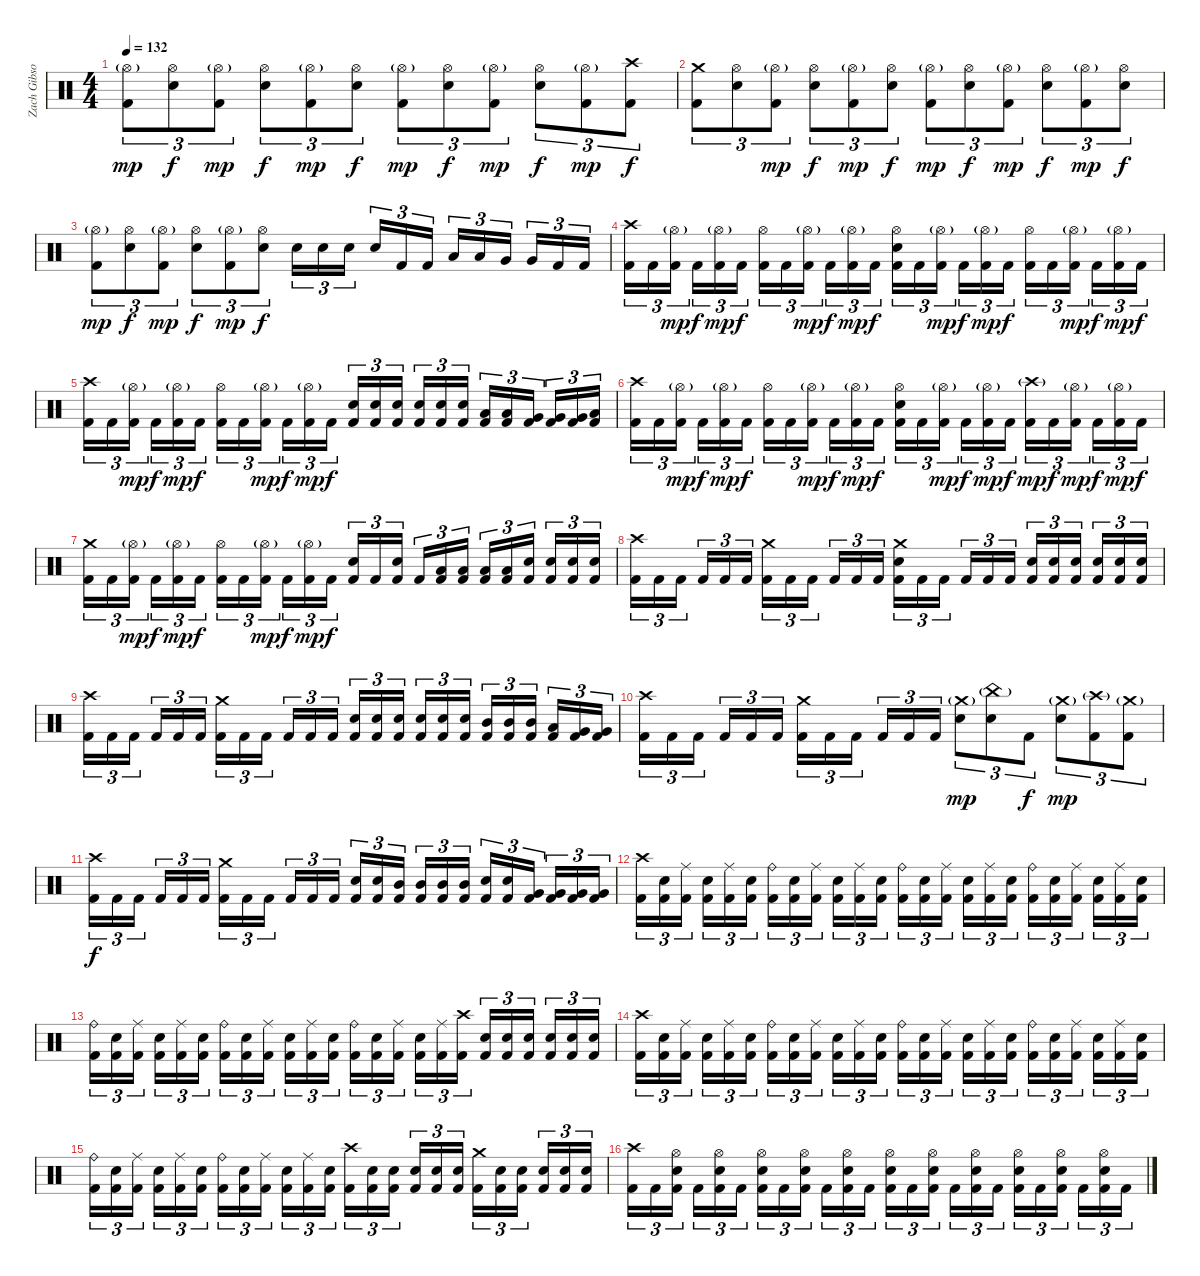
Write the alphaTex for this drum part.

\track ("Zach Gibson (Drums)" "Zach Gibso") {instrument percussion}
\staff {score}
\articulation defaults
\ts (4 4)
\tempo 132
\clef neutral
\ks c
("Hi-Hat (open)"{g} "Kick (hit) 2").8{tu (3 2) dy mp} ("Hi-Hat (open)" "Snare (hit) 2").8{tu (3 2) dy f} ("Hi-Hat (open)"{g} "Kick (hit) 2").8{tu (3 2) dy mp} ("Hi-Hat (open)" "Snare (hit) 2").8{tu (3 2) dy f} ("Hi-Hat (open)"{g} "Kick (hit) 2").8{tu (3 2) dy mp} ("Hi-Hat (open)" "Snare (hit) 2").8{tu (3 2) dy f} ("Hi-Hat (open)"{g} "Kick (hit) 2").8{tu (3 2) dy mp} ("Hi-Hat (open)" "Snare (hit) 2").8{tu (3 2) dy f} ("Hi-Hat (open)"{g} "Kick (hit) 2").8{tu (3 2) dy mp} ("Hi-Hat (open)" "Snare (hit) 2").8{tu (3 2) dy f} ("Hi-Hat (open)"{g} "Kick (hit) 2").8{tu (3 2) dy mp} ("Crash high (hit)" "Kick (hit) 2").8{tu (3 2) dy f} |
("Crash medium (hit)" "Kick (hit) 2").8{tu (3 2)} ("Hi-Hat (open)" "Snare (hit) 2").8{tu (3 2)} ("Hi-Hat (open)"{g} "Kick (hit) 2").8{tu (3 2) dy mp} ("Hi-Hat (open)" "Snare (hit) 2").8{tu (3 2) dy f} ("Hi-Hat (open)"{g} "Kick (hit) 2").8{tu (3 2) dy mp} ("Hi-Hat (open)" "Snare (hit) 2").8{tu (3 2) dy f} ("Hi-Hat (open)"{g} "Kick (hit) 2").8{tu (3 2) dy mp} ("Hi-Hat (open)" "Snare (hit) 2").8{tu (3 2) dy f} ("Hi-Hat (open)"{g} "Kick (hit) 2").8{tu (3 2) dy mp} ("Hi-Hat (open)" "Snare (hit) 2").8{tu (3 2) dy f} ("Hi-Hat (open)"{g} "Kick (hit) 2").8{tu (3 2) dy mp} ("Hi-Hat (open)" "Snare (hit) 2").8{tu (3 2) dy f} |
("Hi-Hat (open)"{g} "Kick (hit) 2").8{tu (3 2) dy mp} ("Hi-Hat (open)" "Snare (hit) 2").8{tu (3 2) dy f} ("Hi-Hat (open)"{g} "Kick (hit) 2").8{tu (3 2) dy mp} ("Hi-Hat (open)" "Snare (hit) 2").8{tu (3 2) dy f} ("Hi-Hat (open)"{g} "Kick (hit) 2").8{tu (3 2) dy mp} ("Hi-Hat (open)" "Snare (hit) 2").8{tu (3 2) dy f} "Snare (hit) 2".16{tu (3 2)} "Snare (hit) 2".16{tu (3 2)} "Snare (hit) 2".16{tu (3 2)} "Snare (hit) 2".16{tu (3 2)} "Kick (hit) 2".16{tu (3 2)} "Kick (hit) 2".16{tu (3 2)} "Low Tom (hit)".16{tu (3 2)} "Low Tom (hit)".16{tu (3 2)} "Very Low Tom (hit)".16{tu (3 2)} "Very Low Tom (hit)".16{tu (3 2)} "Kick (hit) 2".16{tu (3 2)} "Kick (hit) 2".16{tu (3 2)} |
("Crash high (hit)" "Kick (hit) 2").16{tu (3 2)} "Kick (hit) 2".16{tu (3 2)} ("Hi-Hat (open)"{g} "Kick (hit) 2").16{tu (3 2) dy mp} "Kick (hit) 2".16{tu (3 2) dy f} ("Hi-Hat (open)"{g} "Kick (hit) 2").16{tu (3 2) dy mp} "Kick (hit) 2".16{tu (3 2) dy f} ("Hi-Hat (open)" "Kick (hit) 2").16{tu (3 2)} "Kick (hit) 2".16{tu (3 2)} ("Hi-Hat (open)"{g} "Kick (hit) 2").16{tu (3 2) dy mp} "Kick (hit) 2".16{tu (3 2) dy f} ("Hi-Hat (open)"{g} "Kick (hit) 2").16{tu (3 2) dy mp} "Kick (hit) 2".16{tu (3 2) dy f} ("Snare (hit) 2" "Hi-Hat (open)" "Kick (hit) 2").16{tu (3 2)} "Kick (hit) 2".16{tu (3 2)} ("Hi-Hat (open)"{g} "Kick (hit) 2").16{tu (3 2) dy mp} "Kick (hit) 2".16{tu (3 2) dy f} ("Hi-Hat (open)"{g} "Kick (hit) 2").16{tu (3 2) dy mp} "Kick (hit) 2".16{tu (3 2) dy f} ("Hi-Hat (open)" "Kick (hit) 2").16{tu (3 2)} "Kick (hit) 2".16{tu (3 2)} ("Hi-Hat (open)"{g} "Kick (hit) 2").16{tu (3 2) dy mp} "Kick (hit) 2".16{tu (3 2) dy f} ("Hi-Hat (open)"{g} "Kick (hit) 2").16{tu (3 2) dy mp} "Kick (hit) 2".16{tu (3 2) dy f} |
("Crash high (hit)" "Kick (hit) 2").16{tu (3 2)} "Kick (hit) 2".16{tu (3 2)} ("Hi-Hat (open)"{g} "Kick (hit) 2").16{tu (3 2) dy mp} "Kick (hit) 2".16{tu (3 2) dy f} ("Hi-Hat (open)"{g} "Kick (hit) 2").16{tu (3 2) dy mp} "Kick (hit) 2".16{tu (3 2) dy f} ("Hi-Hat (open)" "Kick (hit) 2").16{tu (3 2)} "Kick (hit) 2".16{tu (3 2)} ("Hi-Hat (open)"{g} "Kick (hit) 2").16{tu (3 2) dy mp} "Kick (hit) 2".16{tu (3 2) dy f} ("Hi-Hat (open)"{g} "Kick (hit) 2").16{tu (3 2) dy mp} "Kick (hit) 2".16{tu (3 2) dy f} ("Snare (hit) 2" "Kick (hit) 2").16{tu (3 2)} ("Snare (hit) 2" "Kick (hit) 2").16{tu (3 2)} ("Snare (hit) 2" "Kick (hit) 2").16{tu (3 2)} ("Snare (hit) 2" "Kick (hit) 2").16{tu (3 2)} ("Snare (hit) 2" "Kick (hit) 2").16{tu (3 2)} ("Snare (hit) 2" "Kick (hit) 2").16{tu (3 2)} ("Low Tom (hit)" "Kick (hit) 2").16{tu (3 2)} ("Low Tom (hit)" "Kick (hit) 2").16{tu (3 2)} ("Very Low Tom (hit)" "Kick (hit) 2").16{tu (3 2)} ("Very Low Tom (hit)" "Kick (hit) 2").16{tu (3 2)} ("Very Low Tom (hit)" "Kick (hit) 2").16{tu (3 2)} ("Low Floor Tom (hit)" "Kick (hit) 2").16{tu (3 2)} |
("Crash high (hit)" "Kick (hit) 2").16{tu (3 2)} "Kick (hit) 2".16{tu (3 2)} ("Hi-Hat (open)"{g} "Kick (hit) 2").16{tu (3 2) dy mp} "Kick (hit) 2".16{tu (3 2) dy f} ("Hi-Hat (open)"{g} "Kick (hit) 2").16{tu (3 2) dy mp} "Kick (hit) 2".16{tu (3 2) dy f} ("Hi-Hat (open)" "Kick (hit) 2").16{tu (3 2)} "Kick (hit) 2".16{tu (3 2)} ("Hi-Hat (open)"{g} "Kick (hit) 2").16{tu (3 2) dy mp} "Kick (hit) 2".16{tu (3 2) dy f} ("Hi-Hat (open)"{g} "Kick (hit) 2").16{tu (3 2) dy mp} "Kick (hit) 2".16{tu (3 2) dy f} ("Snare (hit) 2" "Hi-Hat (open)" "Kick (hit) 2").16{tu (3 2)} "Kick (hit) 2".16{tu (3 2)} ("Hi-Hat (open)"{g} "Kick (hit) 2").16{tu (3 2) dy mp} "Kick (hit) 2".16{tu (3 2) dy f} ("Hi-Hat (open)"{g} "Kick (hit) 2").16{tu (3 2) dy mp} "Kick (hit) 2".16{tu (3 2) dy f} ("Crash high (hit)"{g} "Kick (hit) 2").16{tu (3 2) dy mp} "Kick (hit) 2".16{tu (3 2) dy f} ("Hi-Hat (open)"{g} "Kick (hit) 2").16{tu (3 2) dy mp} "Kick (hit) 2".16{tu (3 2) dy f} ("Hi-Hat (open)"{g} "Kick (hit) 2").16{tu (3 2) dy mp} "Kick (hit) 2".16{tu (3 2) dy f} |
("Crash medium (hit)" "Kick (hit) 2").16{tu (3 2)} "Kick (hit) 2".16{tu (3 2)} ("Hi-Hat (open)"{g} "Kick (hit) 2").16{tu (3 2) dy mp} "Kick (hit) 2".16{tu (3 2) dy f} ("Hi-Hat (open)"{g} "Kick (hit) 2").16{tu (3 2) dy mp} "Kick (hit) 2".16{tu (3 2) dy f} ("Hi-Hat (open)" "Kick (hit) 2").16{tu (3 2)} "Kick (hit) 2".16{tu (3 2)} ("Hi-Hat (open)"{g} "Kick (hit) 2").16{tu (3 2) dy mp} "Kick (hit) 2".16{tu (3 2) dy f} ("Hi-Hat (open)"{g} "Kick (hit) 2").16{tu (3 2) dy mp} "Kick (hit) 2".16{tu (3 2) dy f} ("Snare (hit) 2" "Kick (hit) 2").16{tu (3 2)} "Kick (hit) 2".16{tu (3 2)} ("Snare (hit) 2" "Kick (hit) 2").16{tu (3 2)} "Kick (hit) 2".16{tu (3 2)} ("Low Tom (hit)" "Kick (hit) 2").16{tu (3 2)} ("Low Tom (hit)" "Kick (hit) 2").16{tu (3 2)} ("Low Tom (hit)" "Kick (hit) 2").16{tu (3 2)} ("Low Tom (hit)" "Kick (hit) 2").16{tu (3 2)} ("Snare (hit) 2" "Kick (hit) 2").16{tu (3 2)} ("Snare (hit) 2" "Kick (hit) 2").16{tu (3 2)} ("Snare (hit) 2" "Kick (hit) 2").16{tu (3 2)} ("Snare (hit) 2" "Kick (hit) 2").16{tu (3 2)} |
("Crash high (hit)" "Kick (hit) 2").16{tu (3 2)} "Kick (hit) 2".16{tu (3 2)} "Kick (hit) 2".16{tu (3 2)} "Kick (hit) 2".16{tu (3 2)} "Kick (hit) 2".16{tu (3 2)} "Kick (hit) 2".16{tu (3 2)} ("Crash medium (hit)" "Kick (hit) 2").16{tu (3 2)} "Kick (hit) 2".16{tu (3 2)} "Kick (hit) 2".16{tu (3 2)} "Kick (hit) 2".16{tu (3 2)} "Kick (hit) 2".16{tu (3 2)} "Kick (hit) 2".16{tu (3 2)} ("Kick (hit) 2" "Crash medium (hit)" "Snare (hit) 2").16{tu (3 2)} "Kick (hit) 2".16{tu (3 2)} "Kick (hit) 2".16{tu (3 2)} "Kick (hit) 2".16{tu (3 2)} "Kick (hit) 2".16{tu (3 2)} "Kick (hit) 2".16{tu (3 2)} ("Snare (hit) 2" "Kick (hit) 2").16{tu (3 2)} ("Snare (hit) 2" "Kick (hit) 2").16{tu (3 2)} ("Snare (hit) 2" "Kick (hit) 2").16{tu (3 2)} ("Snare (hit) 2" "Kick (hit) 2").16{tu (3 2)} ("Snare (hit) 2" "Kick (hit) 2").16{tu (3 2)} ("Snare (hit) 2" "Kick (hit) 2").16{tu (3 2)} |
("Crash high (hit)" "Kick (hit) 2").16{tu (3 2)} "Kick (hit) 2".16{tu (3 2)} "Kick (hit) 2".16{tu (3 2)} "Kick (hit) 2".16{tu (3 2)} "Kick (hit) 2".16{tu (3 2)} "Kick (hit) 2".16{tu (3 2)} ("Crash medium (hit)" "Kick (hit) 2").16{tu (3 2)} "Kick (hit) 2".16{tu (3 2)} "Kick (hit) 2".16{tu (3 2)} "Kick (hit) 2".16{tu (3 2)} "Kick (hit) 2".16{tu (3 2)} "Kick (hit) 2".16{tu (3 2)} ("Snare (hit) 2" "Kick (hit) 2").16{tu (3 2)} ("Snare (hit) 2" "Kick (hit) 2").16{tu (3 2)} ("Snare (hit) 2" "Kick (hit) 2").16{tu (3 2)} ("Snare (hit) 2" "Kick (hit) 2").16{tu (3 2)} ("Snare (hit) 2" "Kick (hit) 2").16{tu (3 2)} ("Snare (hit) 2" "Kick (hit) 2").16{tu (3 2)} ("Mid Tom (hit)" "Kick (hit) 2").16{tu (3 2)} ("Mid Tom (hit)" "Kick (hit) 2").16{tu (3 2)} ("Mid Tom (hit)" "Kick (hit) 2").16{tu (3 2)} ("Low Tom (hit)" "Kick (hit) 2").16{tu (3 2)} ("Very Low Tom (hit)" "Kick (hit) 2").16{tu (3 2)} ("Very Low Tom (hit)" "Kick (hit) 2").16{tu (3 2)} |
("Crash high (hit)" "Kick (hit) 2").16{tu (3 2)} "Kick (hit) 2".16{tu (3 2)} "Kick (hit) 2".16{tu (3 2)} "Kick (hit) 2".16{tu (3 2)} "Kick (hit) 2".16{tu (3 2)} "Kick (hit) 2".16{tu (3 2)} ("Crash medium (hit)" "Kick (hit) 2").16{tu (3 2)} "Kick (hit) 2".16{tu (3 2)} "Kick (hit) 2".16{tu (3 2)} "Kick (hit) 2".16{tu (3 2)} "Kick (hit) 2".16{tu (3 2)} "Kick (hit) 2".16{tu (3 2)} ("Crash medium (hit)"{g} "Snare (hit) 2").8{tu (3 2) dy mp} ("China (hit)"{g} "Snare (hit) 2").8{tu (3 2)} "Kick (hit) 2".8{tu (3 2) dy f} ("Crash medium (hit)"{g} "Snare (hit) 2").8{tu (3 2) dy mp} ("Crash high (hit)"{g} "Kick (hit) 2").8{tu (3 2)} ("Crash medium (hit)"{g} "Kick (hit) 2").8{tu (3 2)} |
("Crash high (hit)" "Kick (hit) 2").16{tu (3 2) dy f} "Kick (hit) 2".16{tu (3 2)} "Kick (hit) 2".16{tu (3 2)} "Kick (hit) 2".16{tu (3 2)} "Kick (hit) 2".16{tu (3 2)} "Kick (hit) 2".16{tu (3 2)} ("Crash medium (hit)" "Kick (hit) 2").16{tu (3 2)} "Kick (hit) 2".16{tu (3 2)} "Kick (hit) 2".16{tu (3 2)} "Kick (hit) 2".16{tu (3 2)} "Kick (hit) 2".16{tu (3 2)} "Kick (hit) 2".16{tu (3 2)} ("Snare (hit) 2" "Kick (hit) 2").16{tu (3 2)} ("Snare (hit) 2" "Kick (hit) 2").16{tu (3 2)} ("Mid Tom (hit)" "Kick (hit) 2").16{tu (3 2)} ("Mid Tom (hit)" "Kick (hit) 2").16{tu (3 2)} ("Mid Tom (hit)" "Kick (hit) 2").16{tu (3 2)} ("Mid Tom (hit)" "Kick (hit) 2").16{tu (3 2)} ("Snare (hit) 2" "Kick (hit) 2").16{tu (3 2)} ("Snare (hit) 2" "Kick (hit) 2").16{tu (3 2)} ("Very Low Tom (hit)" "Kick (hit) 2").16{tu (3 2)} ("Very Low Tom (hit)" "Kick (hit) 2").16{tu (3 2)} ("Very Low Tom (hit)" "Kick (hit) 2").16{tu (3 2)} ("Very Low Tom (hit)" "Kick (hit) 2").16{tu (3 2)} |
("Crash high (hit)" "Kick (hit) 2").16{tu (3 2)} ("Kick (hit) 2" "Snare (hit) 2").16{tu (3 2)} ("Ride (middle)" "Kick (hit) 2").16{tu (3 2)} ("Kick (hit) 2" "Snare (hit) 2").16{tu (3 2)} ("Ride (middle)" "Kick (hit) 2").16{tu (3 2)} ("Kick (hit) 2" "Snare (hit) 2").16{tu (3 2)} ("Ride (bell)" "Kick (hit) 2").16{tu (3 2)} ("Kick (hit) 2" "Snare (hit) 2").16{tu (3 2)} ("Ride (middle)" "Kick (hit) 2").16{tu (3 2)} ("Kick (hit) 2" "Snare (hit) 2").16{tu (3 2)} ("Ride (middle)" "Kick (hit) 2").16{tu (3 2)} ("Kick (hit) 2" "Snare (hit) 2").16{tu (3 2)} ("Ride (bell)" "Kick (hit) 2").16{tu (3 2)} ("Kick (hit) 2" "Snare (hit) 2").16{tu (3 2)} ("Ride (middle)" "Kick (hit) 2").16{tu (3 2)} ("Kick (hit) 2" "Snare (hit) 2").16{tu (3 2)} ("Ride (middle)" "Kick (hit) 2").16{tu (3 2)} ("Kick (hit) 2" "Snare (hit) 2").16{tu (3 2)} ("Ride (bell)" "Kick (hit) 2").16{tu (3 2)} ("Kick (hit) 2" "Snare (hit) 2").16{tu (3 2)} ("Ride (middle)" "Kick (hit) 2").16{tu (3 2)} ("Kick (hit) 2" "Snare (hit) 2").16{tu (3 2)} ("Ride (middle)" "Kick (hit) 2").16{tu (3 2)} ("Kick (hit) 2" "Snare (hit) 2").16{tu (3 2)} |
("Ride (bell)" "Kick (hit) 2").16{tu (3 2)} ("Kick (hit) 2" "Snare (hit) 2").16{tu (3 2)} ("Ride (middle)" "Kick (hit) 2").16{tu (3 2)} ("Kick (hit) 2" "Snare (hit) 2").16{tu (3 2)} ("Ride (middle)" "Kick (hit) 2").16{tu (3 2)} ("Kick (hit) 2" "Snare (hit) 2").16{tu (3 2)} ("Ride (bell)" "Kick (hit) 2").16{tu (3 2)} ("Kick (hit) 2" "Snare (hit) 2").16{tu (3 2)} ("Ride (middle)" "Kick (hit) 2").16{tu (3 2)} ("Kick (hit) 2" "Snare (hit) 2").16{tu (3 2)} ("Ride (middle)" "Kick (hit) 2").16{tu (3 2)} ("Kick (hit) 2" "Snare (hit) 2").16{tu (3 2)} ("Ride (bell)" "Kick (hit) 2").16{tu (3 2)} ("Kick (hit) 2" "Snare (hit) 2").16{tu (3 2)} ("Ride (middle)" "Kick (hit) 2").16{tu (3 2)} ("Kick (hit) 2" "Snare (hit) 2").16{tu (3 2)} ("Ride (middle)" "Kick (hit) 2").16{tu (3 2)} ("Crash high (hit)" "Kick (hit) 2").16{tu (3 2)} ("Snare (hit) 2" "Kick (hit) 2").16{tu (3 2)} ("Snare (hit) 2" "Kick (hit) 2").16{tu (3 2)} ("Snare (hit) 2" "Kick (hit) 2").16{tu (3 2)} ("Snare (hit) 2" "Kick (hit) 2").16{tu (3 2)} ("Snare (hit) 2" "Kick (hit) 2").16{tu (3 2)} ("Snare (hit) 2" "Kick (hit) 2").16{tu (3 2)} |
("Crash high (hit)" "Kick (hit) 2").16{tu (3 2)} ("Kick (hit) 2" "Snare (hit) 2").16{tu (3 2)} ("Ride (middle)" "Kick (hit) 2").16{tu (3 2)} ("Kick (hit) 2" "Snare (hit) 2").16{tu (3 2)} ("Ride (middle)" "Kick (hit) 2").16{tu (3 2)} ("Kick (hit) 2" "Snare (hit) 2").16{tu (3 2)} ("Ride (bell)" "Kick (hit) 2").16{tu (3 2)} ("Kick (hit) 2" "Snare (hit) 2").16{tu (3 2)} ("Ride (middle)" "Kick (hit) 2").16{tu (3 2)} ("Kick (hit) 2" "Snare (hit) 2").16{tu (3 2)} ("Ride (middle)" "Kick (hit) 2").16{tu (3 2)} ("Kick (hit) 2" "Snare (hit) 2").16{tu (3 2)} ("Ride (bell)" "Kick (hit) 2").16{tu (3 2)} ("Kick (hit) 2" "Snare (hit) 2").16{tu (3 2)} ("Ride (middle)" "Kick (hit) 2").16{tu (3 2)} ("Kick (hit) 2" "Snare (hit) 2").16{tu (3 2)} ("Ride (middle)" "Kick (hit) 2").16{tu (3 2)} ("Kick (hit) 2" "Snare (hit) 2").16{tu (3 2)} ("Ride (bell)" "Kick (hit) 2").16{tu (3 2)} ("Kick (hit) 2" "Snare (hit) 2").16{tu (3 2)} ("Ride (middle)" "Kick (hit) 2").16{tu (3 2)} ("Kick (hit) 2" "Snare (hit) 2").16{tu (3 2)} ("Ride (middle)" "Kick (hit) 2").16{tu (3 2)} ("Kick (hit) 2" "Snare (hit) 2").16{tu (3 2)} |
("Ride (bell)" "Kick (hit) 2").16{tu (3 2)} ("Kick (hit) 2" "Snare (hit) 2").16{tu (3 2)} ("Ride (middle)" "Kick (hit) 2").16{tu (3 2)} ("Kick (hit) 2" "Snare (hit) 2").16{tu (3 2)} ("Ride (middle)" "Kick (hit) 2").16{tu (3 2)} ("Kick (hit) 2" "Snare (hit) 2").16{tu (3 2)} ("Ride (bell)" "Kick (hit) 2").16{tu (3 2)} ("Kick (hit) 2" "Snare (hit) 2").16{tu (3 2)} ("Ride (middle)" "Kick (hit) 2").16{tu (3 2)} ("Kick (hit) 2" "Snare (hit) 2").16{tu (3 2)} ("Ride (middle)" "Kick (hit) 2").16{tu (3 2)} ("Kick (hit) 2" "Snare (hit) 2").16{tu (3 2)} ("Crash high (hit)" "Kick (hit) 2").16{tu (3 2)} ("Snare (hit) 2" "Kick (hit) 2").16{tu (3 2)} ("Snare (hit) 2" "Kick (hit) 2").16{tu (3 2)} ("Snare (hit) 2" "Kick (hit) 2").16{tu (3 2)} ("Snare (hit) 2" "Kick (hit) 2").16{tu (3 2)} ("Snare (hit) 2" "Kick (hit) 2").16{tu (3 2)} ("Crash medium (hit)" "Kick (hit) 2").16{tu (3 2)} ("Snare (hit) 2" "Kick (hit) 2").16{tu (3 2)} ("Snare (hit) 2" "Kick (hit) 2").16{tu (3 2)} ("Snare (hit) 2" "Kick (hit) 2").16{tu (3 2)} ("Snare (hit) 2" "Kick (hit) 2").16{tu (3 2)} ("Snare (hit) 2" "Kick (hit) 2").16{tu (3 2)} |
("Crash high (hit)" "Kick (hit) 2").16{tu (3 2)} "Kick (hit) 2".16{tu (3 2)} ("Hi-Hat (open)" "Snare (hit) 2" "Kick (hit) 2").16{tu (3 2)} "Kick (hit) 2".16{tu (3 2)} ("Hi-Hat (open)" "Snare (hit) 2" "Kick (hit) 2").16{tu (3 2)} "Kick (hit) 2".16{tu (3 2)} ("Hi-Hat (open)" "Snare (hit) 2" "Kick (hit) 2").16{tu (3 2)} "Kick (hit) 2".16{tu (3 2)} ("Hi-Hat (open)" "Snare (hit) 2" "Kick (hit) 2").16{tu (3 2)} "Kick (hit) 2".16{tu (3 2)} ("Hi-Hat (open)" "Snare (hit) 2" "Kick (hit) 2").16{tu (3 2)} "Kick (hit) 2".16{tu (3 2)} ("Hi-Hat (open)" "Snare (hit) 2" "Kick (hit) 2").16{tu (3 2)} "Kick (hit) 2".16{tu (3 2)} ("Hi-Hat (open)" "Snare (hit) 2" "Kick (hit) 2").16{tu (3 2)} "Kick (hit) 2".16{tu (3 2)} ("Hi-Hat (open)" "Snare (hit) 2" "Kick (hit) 2").16{tu (3 2)} "Kick (hit) 2".16{tu (3 2)} ("Hi-Hat (open)" "Snare (hit) 2" "Kick (hit) 2").16{tu (3 2)} "Kick (hit) 2".16{tu (3 2)} ("Hi-Hat (open)" "Snare (hit) 2" "Kick (hit) 2").16{tu (3 2)} "Kick (hit) 2".16{tu (3 2)} ("Hi-Hat (open)" "Snare (hit) 2" "Kick (hit) 2").16{tu (3 2)} "Kick (hit) 2".16{tu (3 2)}
